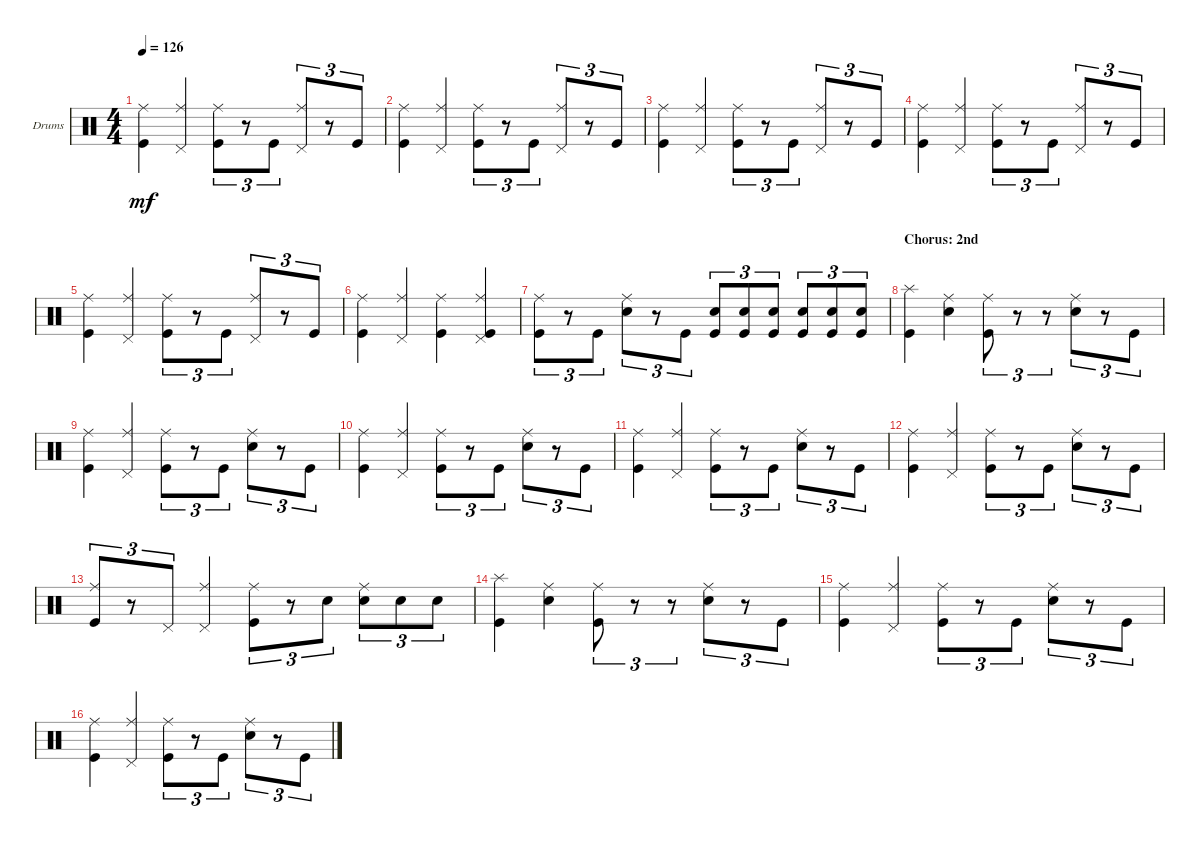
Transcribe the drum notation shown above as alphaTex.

\defaultSystemsLayout 4
\bracketExtendMode groupsimilarinstruments
\firstSystemTrackNameOrientation horizontal
\otherSystemsTrackNameOrientation horizontal
\track ("Drumkit" "Drums") {instrument percussion}
\staff {score}
\articulation defaults
\ts (4 4)
\tempo 126
\clef neutral
\ks c
("Ride (middle)" "Kick (hit)").4{dy mf} ("Ride (middle)" "Pedal Hi-Hat (hit)").4 ("Ride (middle)" "Kick (hit)").8{tu (3 2)} r.8{tu (3 2)} "Kick (hit)".8{tu (3 2)} ("Ride (middle)" "Pedal Hi-Hat (hit)").8{tu (3 2)} r.8{tu (3 2)} "Kick (hit)".8{tu (3 2)} |
("Ride (middle)" "Kick (hit)").4 ("Ride (middle)" "Pedal Hi-Hat (hit)").4 ("Ride (middle)" "Kick (hit)").8{tu (3 2)} r.8{tu (3 2)} "Kick (hit)".8{tu (3 2)} ("Ride (middle)" "Pedal Hi-Hat (hit)").8{tu (3 2)} r.8{tu (3 2)} "Kick (hit)".8{tu (3 2)} |
("Ride (middle)" "Kick (hit)").4 ("Ride (middle)" "Pedal Hi-Hat (hit)").4 ("Ride (middle)" "Kick (hit)").8{tu (3 2)} r.8{tu (3 2)} "Kick (hit)".8{tu (3 2)} ("Ride (middle)" "Pedal Hi-Hat (hit)").8{tu (3 2)} r.8{tu (3 2)} "Kick (hit)".8{tu (3 2)} |
("Ride (middle)" "Kick (hit)").4 ("Ride (middle)" "Pedal Hi-Hat (hit)").4 ("Ride (middle)" "Kick (hit)").8{tu (3 2)} r.8{tu (3 2)} "Kick (hit)".8{tu (3 2)} ("Ride (middle)" "Pedal Hi-Hat (hit)").8{tu (3 2)} r.8{tu (3 2)} "Kick (hit)".8{tu (3 2)} |
("Ride (middle)" "Kick (hit)").4 ("Ride (middle)" "Pedal Hi-Hat (hit)").4 ("Ride (middle)" "Kick (hit)").8{tu (3 2)} r.8{tu (3 2)} "Kick (hit)".8{tu (3 2)} ("Ride (middle)" "Pedal Hi-Hat (hit)").8{tu (3 2)} r.8{tu (3 2)} "Kick (hit)".8{tu (3 2)} |
("Ride (middle)" "Kick (hit)").4 ("Ride (middle)" "Pedal Hi-Hat (hit)").4 ("Ride (middle)" "Kick (hit)").4 ("Ride (middle)" "Pedal Hi-Hat (hit)" "Kick (hit)").4 |
("Ride (middle)" "Kick (hit)").8{tu (3 2)} r.8{tu (3 2)} "Kick (hit)".8{tu (3 2)} ("Ride (middle)" "Snare (hit) 2").8{tu (3 2)} r.8{tu (3 2)} "Kick (hit)".8{tu (3 2)} ("Kick (hit)" "Snare (hit) 2").8{tu (3 2)} ("Kick (hit)" "Snare (hit) 2").8{tu (3 2)} ("Kick (hit)" "Snare (hit) 2").8{tu (3 2)} ("Kick (hit)" "Snare (hit) 2").8{tu (3 2)} ("Kick (hit)" "Snare (hit) 2").8{tu (3 2)} ("Kick (hit)" "Snare (hit) 2").8{tu (3 2)} |
\section ("" "Chorus: 2nd")
("Splash (hit)" "Kick (hit)").4 ("Ride (middle)" "Snare (hit) 2").4 ("Ride (middle)" "Kick (hit)").8{tu (3 2)} r.8{tu (3 2)} r.8{tu (3 2)} ("Ride (middle)" "Snare (hit) 2").8{tu (3 2)} r.8{tu (3 2)} "Kick (hit)".8{tu (3 2)} |
("Ride (middle)" "Kick (hit)").4 ("Ride (middle)" "Pedal Hi-Hat (hit)").4 ("Ride (middle)" "Kick (hit)").8{tu (3 2)} r.8{tu (3 2)} "Kick (hit)".8{tu (3 2)} ("Ride (middle)" "Snare (hit) 2").8{tu (3 2)} r.8{tu (3 2)} "Kick (hit)".8{tu (3 2)} |
("Ride (middle)" "Kick (hit)").4 ("Ride (middle)" "Pedal Hi-Hat (hit)").4 ("Ride (middle)" "Kick (hit)").8{tu (3 2)} r.8{tu (3 2)} "Kick (hit)".8{tu (3 2)} ("Ride (middle)" "Snare (hit) 2").8{tu (3 2)} r.8{tu (3 2)} "Kick (hit)".8{tu (3 2)} |
("Ride (middle)" "Kick (hit)").4 ("Ride (middle)" "Pedal Hi-Hat (hit)").4 ("Ride (middle)" "Kick (hit)").8{tu (3 2)} r.8{tu (3 2)} "Kick (hit)".8{tu (3 2)} ("Ride (middle)" "Snare (hit) 2").8{tu (3 2)} r.8{tu (3 2)} "Kick (hit)".8{tu (3 2)} |
("Ride (middle)" "Kick (hit)").4 ("Ride (middle)" "Pedal Hi-Hat (hit)").4 ("Ride (middle)" "Kick (hit)").8{tu (3 2)} r.8{tu (3 2)} "Kick (hit)".8{tu (3 2)} ("Ride (middle)" "Snare (hit) 2").8{tu (3 2)} r.8{tu (3 2)} "Kick (hit)".8{tu (3 2)} |
("Ride (middle)" "Kick (hit)").8{tu (3 2)} r.8{tu (3 2)} "Pedal Hi-Hat (hit)".8{tu (3 2)} ("Ride (middle)" "Pedal Hi-Hat (hit)").4 ("Ride (middle)" "Kick (hit)").8{tu (3 2)} r.8{tu (3 2)} "Snare (hit) 2".8{tu (3 2)} ("Ride (middle)" "Snare (hit) 2").8{tu (3 2)} "Snare (hit) 2".8{tu (3 2)} "Snare (hit) 2".8{tu (3 2)} |
("Splash (hit)" "Kick (hit)").4 ("Ride (middle)" "Snare (hit) 2").4 ("Ride (middle)" "Kick (hit)").8{tu (3 2)} r.8{tu (3 2)} r.8{tu (3 2)} ("Ride (middle)" "Snare (hit) 2").8{tu (3 2)} r.8{tu (3 2)} "Kick (hit)".8{tu (3 2)} |
("Ride (middle)" "Kick (hit)").4 ("Ride (middle)" "Pedal Hi-Hat (hit)").4 ("Ride (middle)" "Kick (hit)").8{tu (3 2)} r.8{tu (3 2)} "Kick (hit)".8{tu (3 2)} ("Ride (middle)" "Snare (hit) 2").8{tu (3 2)} r.8{tu (3 2)} "Kick (hit)".8{tu (3 2)} |
("Ride (middle)" "Kick (hit)").4 ("Ride (middle)" "Pedal Hi-Hat (hit)").4 ("Ride (middle)" "Kick (hit)").8{tu (3 2)} r.8{tu (3 2)} "Kick (hit)".8{tu (3 2)} ("Ride (middle)" "Snare (hit) 2").8{tu (3 2)} r.8{tu (3 2)} "Kick (hit)".8{tu (3 2)}
